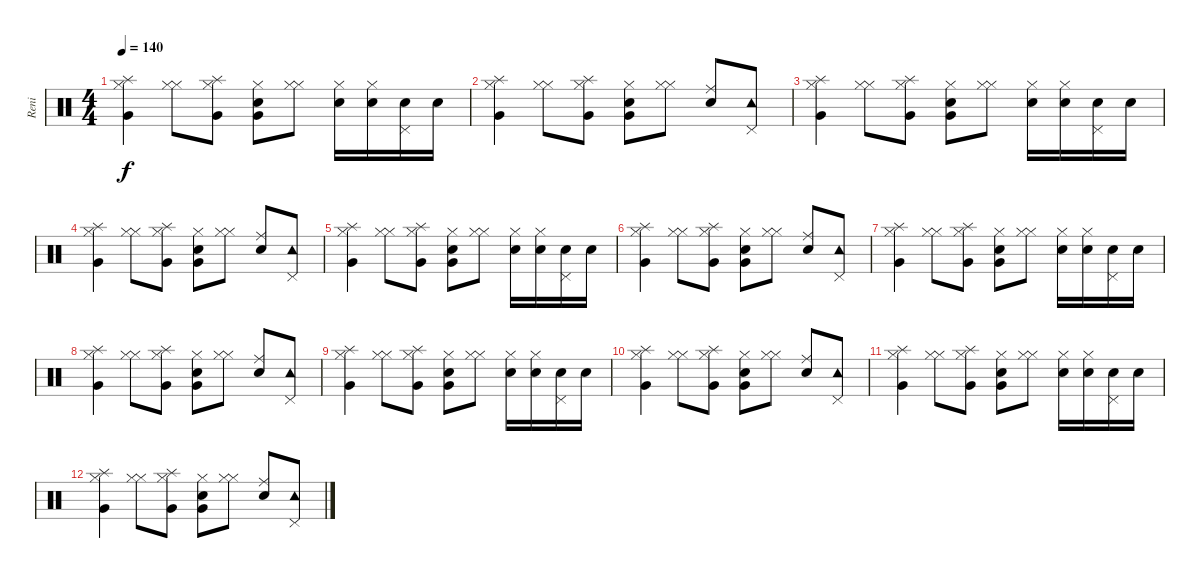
\track ("Reni" "Reni") {instrument percussion}
\staff {score}
\articulation defaults
\ts (4 4)
\tempo 140
\clef neutral
\ks c
("Hi-Hat (closed)" "Splash (hit)" "Very Low Tom (hit)").4{dy f} ("Hi-Hat (closed)" "Hi-Hat (closed)").8 ("Hi-Hat (closed)" "Splash (hit)" "Very Low Tom (hit)").8 ("Hi-Hat (closed)" "Snare (hit) 2" "Very Low Tom (hit)").8 ("Hi-Hat (closed)" "Hi-Hat (closed)").8 ("Hi-Hat (closed)" "Snare (hit) 2").16 ("Hi-Hat (closed)" "Snare (hit) 2").16 ("Pedal Hi-Hat (hit)" "Snare (hit) 2").16 "Snare (hit) 2".16 |
("Hi-Hat (closed)" "Splash (hit)" "Very Low Tom (hit)").4 ("Hi-Hat (closed)" "Hi-Hat (closed)").8 ("Hi-Hat (closed)" "Splash (hit)" "Very Low Tom (hit)").8 ("Hi-Hat (closed)" "Snare (hit) 2" "Very Low Tom (hit)").8 ("Hi-Hat (closed)" "Hi-Hat (closed)").8 ("Ride (middle)" "Snare (hit) 2").8 ("Tambourine (hit)" "Pedal Hi-Hat (hit)").8 |
("Hi-Hat (closed)" "Splash (hit)" "Very Low Tom (hit)").4 ("Hi-Hat (closed)" "Hi-Hat (closed)").8 ("Hi-Hat (closed)" "Splash (hit)" "Very Low Tom (hit)").8 ("Hi-Hat (closed)" "Snare (hit) 2" "Very Low Tom (hit)").8 ("Hi-Hat (closed)" "Hi-Hat (closed)").8 ("Hi-Hat (closed)" "Snare (hit) 2").16 ("Hi-Hat (closed)" "Snare (hit) 2").16 ("Pedal Hi-Hat (hit)" "Snare (hit) 2").16 "Snare (hit) 2".16 |
("Hi-Hat (closed)" "Splash (hit)" "Very Low Tom (hit)").4 ("Hi-Hat (closed)" "Hi-Hat (closed)").8 ("Hi-Hat (closed)" "Splash (hit)" "Very Low Tom (hit)").8 ("Hi-Hat (closed)" "Snare (hit) 2" "Very Low Tom (hit)").8 ("Hi-Hat (closed)" "Hi-Hat (closed)").8 ("Ride (middle)" "Snare (hit) 2").8 ("Tambourine (hit)" "Pedal Hi-Hat (hit)").8 |
("Hi-Hat (closed)" "Splash (hit)" "Very Low Tom (hit)").4 ("Hi-Hat (closed)" "Hi-Hat (closed)").8 ("Hi-Hat (closed)" "Splash (hit)" "Very Low Tom (hit)").8 ("Hi-Hat (closed)" "Snare (hit) 2" "Very Low Tom (hit)").8 ("Hi-Hat (closed)" "Hi-Hat (closed)").8 ("Hi-Hat (closed)" "Snare (hit) 2").16 ("Hi-Hat (closed)" "Snare (hit) 2").16 ("Pedal Hi-Hat (hit)" "Snare (hit) 2").16 "Snare (hit) 2".16 |
("Hi-Hat (closed)" "Splash (hit)" "Very Low Tom (hit)").4 ("Hi-Hat (closed)" "Hi-Hat (closed)").8 ("Hi-Hat (closed)" "Splash (hit)" "Very Low Tom (hit)").8 ("Hi-Hat (closed)" "Snare (hit) 2" "Very Low Tom (hit)").8 ("Hi-Hat (closed)" "Hi-Hat (closed)").8 ("Ride (middle)" "Snare (hit) 2").8 ("Tambourine (hit)" "Pedal Hi-Hat (hit)").8 |
("Hi-Hat (closed)" "Splash (hit)" "Very Low Tom (hit)").4 ("Hi-Hat (closed)" "Hi-Hat (closed)").8 ("Hi-Hat (closed)" "Splash (hit)" "Very Low Tom (hit)").8 ("Hi-Hat (closed)" "Snare (hit) 2" "Very Low Tom (hit)").8 ("Hi-Hat (closed)" "Hi-Hat (closed)").8 ("Hi-Hat (closed)" "Snare (hit) 2").16 ("Hi-Hat (closed)" "Snare (hit) 2").16 ("Pedal Hi-Hat (hit)" "Snare (hit) 2").16 "Snare (hit) 2".16 |
("Hi-Hat (closed)" "Splash (hit)" "Very Low Tom (hit)").4 ("Hi-Hat (closed)" "Hi-Hat (closed)").8 ("Hi-Hat (closed)" "Splash (hit)" "Very Low Tom (hit)").8 ("Hi-Hat (closed)" "Snare (hit) 2" "Very Low Tom (hit)").8 ("Hi-Hat (closed)" "Hi-Hat (closed)").8 ("Ride (middle)" "Snare (hit) 2").8 ("Tambourine (hit)" "Pedal Hi-Hat (hit)").8 |
("Hi-Hat (closed)" "Splash (hit)" "Very Low Tom (hit)").4 ("Hi-Hat (closed)" "Hi-Hat (closed)").8 ("Hi-Hat (closed)" "Splash (hit)" "Very Low Tom (hit)").8 ("Hi-Hat (closed)" "Snare (hit) 2" "Very Low Tom (hit)").8 ("Hi-Hat (closed)" "Hi-Hat (closed)").8 ("Hi-Hat (closed)" "Snare (hit) 2").16 ("Hi-Hat (closed)" "Snare (hit) 2").16 ("Pedal Hi-Hat (hit)" "Snare (hit) 2").16 "Snare (hit) 2".16 |
("Hi-Hat (closed)" "Splash (hit)" "Very Low Tom (hit)").4 ("Hi-Hat (closed)" "Hi-Hat (closed)").8 ("Hi-Hat (closed)" "Splash (hit)" "Very Low Tom (hit)").8 ("Hi-Hat (closed)" "Snare (hit) 2" "Very Low Tom (hit)").8 ("Hi-Hat (closed)" "Hi-Hat (closed)").8 ("Ride (middle)" "Snare (hit) 2").8{volume 0} ("Tambourine (hit)" "Pedal Hi-Hat (hit)").8 |
("Hi-Hat (closed)" "Splash (hit)" "Very Low Tom (hit)").4 ("Hi-Hat (closed)" "Hi-Hat (closed)").8 ("Hi-Hat (closed)" "Splash (hit)" "Very Low Tom (hit)").8 ("Hi-Hat (closed)" "Snare (hit) 2" "Very Low Tom (hit)").8 ("Hi-Hat (closed)" "Hi-Hat (closed)").8 ("Hi-Hat (closed)" "Snare (hit) 2").16 ("Hi-Hat (closed)" "Snare (hit) 2").16 ("Pedal Hi-Hat (hit)" "Snare (hit) 2").16 "Snare (hit) 2".16 |
("Hi-Hat (closed)" "Splash (hit)" "Very Low Tom (hit)").4 ("Hi-Hat (closed)" "Hi-Hat (closed)").8 ("Hi-Hat (closed)" "Splash (hit)" "Very Low Tom (hit)").8 ("Hi-Hat (closed)" "Snare (hit) 2" "Very Low Tom (hit)").8 ("Hi-Hat (closed)" "Hi-Hat (closed)").8 ("Ride (middle)" "Snare (hit) 2").8 ("Tambourine (hit)" "Pedal Hi-Hat (hit)").8
